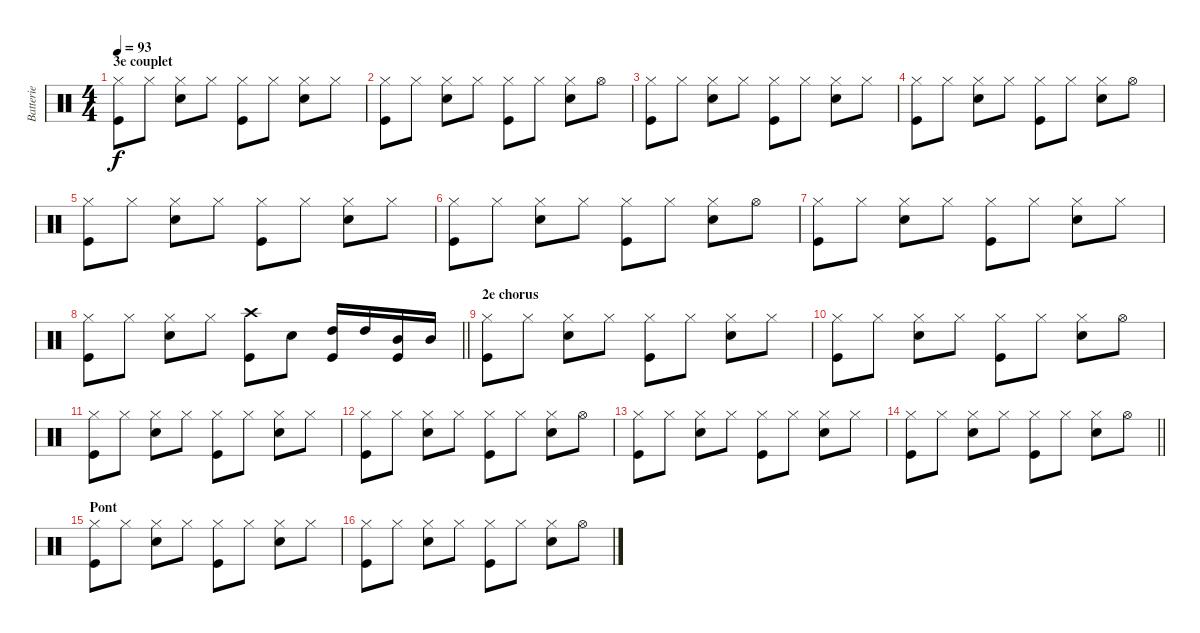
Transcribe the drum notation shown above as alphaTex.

\track ("Batterie" "Batterie") {instrument percussion}
\staff {score}
\articulation defaults
\ts (4 4)
\section ("" "3e couplet")
\tempo 93
\clef neutral
\ks c
("Hi-Hat (closed)" "Kick (hit)").8{dy f} "Hi-Hat (closed)".8 ("Hi-Hat (closed)" "Snare (hit) 2").8 "Hi-Hat (closed)".8 ("Hi-Hat (closed)" "Kick (hit)").8 "Hi-Hat (closed)".8 ("Hi-Hat (closed)" "Snare (hit) 2").8 "Hi-Hat (closed)".8 |
("Hi-Hat (closed)" "Kick (hit)").8 "Hi-Hat (closed)".8 ("Hi-Hat (closed)" "Snare (hit) 2").8 "Hi-Hat (closed)".8 ("Hi-Hat (closed)" "Kick (hit)").8 "Hi-Hat (closed)".8 ("Hi-Hat (closed)" "Snare (hit) 2").8 "Hi-Hat (open)".8 |
("Hi-Hat (closed)" "Kick (hit)").8 "Hi-Hat (closed)".8 ("Hi-Hat (closed)" "Snare (hit) 2").8 "Hi-Hat (closed)".8 ("Hi-Hat (closed)" "Kick (hit)").8 "Hi-Hat (closed)".8 ("Hi-Hat (closed)" "Snare (hit) 2").8 "Hi-Hat (closed)".8 |
("Hi-Hat (closed)" "Kick (hit)").8 "Hi-Hat (closed)".8 ("Hi-Hat (closed)" "Snare (hit) 2").8 "Hi-Hat (closed)".8 ("Hi-Hat (closed)" "Kick (hit)").8 "Hi-Hat (closed)".8 ("Hi-Hat (closed)" "Snare (hit) 2").8 "Hi-Hat (open)".8 |
("Hi-Hat (closed)" "Kick (hit)").8 "Hi-Hat (closed)".8 ("Hi-Hat (closed)" "Snare (hit) 2").8 "Hi-Hat (closed)".8 ("Hi-Hat (closed)" "Kick (hit)").8 "Hi-Hat (closed)".8 ("Hi-Hat (closed)" "Snare (hit) 2").8 "Hi-Hat (closed)".8 |
("Hi-Hat (closed)" "Kick (hit)").8 "Hi-Hat (closed)".8 ("Hi-Hat (closed)" "Snare (hit) 2").8 "Hi-Hat (closed)".8 ("Hi-Hat (closed)" "Kick (hit)").8 "Hi-Hat (closed)".8 ("Hi-Hat (closed)" "Snare (hit) 2").8 "Hi-Hat (open)".8 |
("Hi-Hat (closed)" "Kick (hit)").8 "Hi-Hat (closed)".8 ("Hi-Hat (closed)" "Snare (hit) 2").8 "Hi-Hat (closed)".8 ("Hi-Hat (closed)" "Kick (hit)").8 "Hi-Hat (closed)".8 ("Hi-Hat (closed)" "Snare (hit) 2").8 "Hi-Hat (closed)".8 |
\barLineRight lightlight
("Hi-Hat (closed)" "Kick (hit)").8 "Hi-Hat (closed)".8 ("Hi-Hat (closed)" "Snare (hit) 2").8 "Hi-Hat (closed)".8 ("Crash high (hit)" "Kick (hit)").8 "Snare (hit) 2".8 ("High Tom (hit)" "Kick (hit)").16 "High Tom (hit)".16 ("Mid Tom (hit)" "Kick (hit)").16 "Mid Tom (hit)".16 |
\section ("" "2e chorus")
("Hi-Hat (closed)" "Kick (hit)").8 "Hi-Hat (closed)".8 ("Hi-Hat (closed)" "Snare (hit) 2").8 "Hi-Hat (closed)".8 ("Hi-Hat (closed)" "Kick (hit)").8 "Hi-Hat (closed)".8 ("Hi-Hat (closed)" "Snare (hit) 2").8 "Hi-Hat (closed)".8 |
("Hi-Hat (closed)" "Kick (hit)").8 "Hi-Hat (closed)".8 ("Hi-Hat (closed)" "Snare (hit) 2").8 "Hi-Hat (closed)".8 ("Hi-Hat (closed)" "Kick (hit)").8 "Hi-Hat (closed)".8 ("Hi-Hat (closed)" "Snare (hit) 2").8 "Hi-Hat (open)".8 |
("Hi-Hat (closed)" "Kick (hit)").8 "Hi-Hat (closed)".8 ("Hi-Hat (closed)" "Snare (hit) 2").8 "Hi-Hat (closed)".8 ("Hi-Hat (closed)" "Kick (hit)").8 "Hi-Hat (closed)".8 ("Hi-Hat (closed)" "Snare (hit) 2").8 "Hi-Hat (closed)".8 |
("Hi-Hat (closed)" "Kick (hit)").8 "Hi-Hat (closed)".8 ("Hi-Hat (closed)" "Snare (hit) 2").8 "Hi-Hat (closed)".8 ("Hi-Hat (closed)" "Kick (hit)").8 "Hi-Hat (closed)".8 ("Hi-Hat (closed)" "Snare (hit) 2").8 "Hi-Hat (open)".8 |
("Hi-Hat (closed)" "Kick (hit)").8 "Hi-Hat (closed)".8 ("Hi-Hat (closed)" "Snare (hit) 2").8 "Hi-Hat (closed)".8 ("Hi-Hat (closed)" "Kick (hit)").8 "Hi-Hat (closed)".8 ("Hi-Hat (closed)" "Snare (hit) 2").8 "Hi-Hat (closed)".8 |
\barLineRight lightlight
("Hi-Hat (closed)" "Kick (hit)").8 "Hi-Hat (closed)".8 ("Hi-Hat (closed)" "Snare (hit) 2").8 "Hi-Hat (closed)".8 ("Hi-Hat (closed)" "Kick (hit)").8 "Hi-Hat (closed)".8 ("Hi-Hat (closed)" "Snare (hit) 2").8 "Hi-Hat (open)".8 |
\section ("" "Pont")
("Hi-Hat (closed)" "Kick (hit)").8 "Hi-Hat (closed)".8 ("Hi-Hat (closed)" "Snare (hit) 2").8 "Hi-Hat (closed)".8 ("Hi-Hat (closed)" "Kick (hit)").8 "Hi-Hat (closed)".8 ("Hi-Hat (closed)" "Snare (hit) 2").8 "Hi-Hat (closed)".8 |
("Hi-Hat (closed)" "Kick (hit)").8 "Hi-Hat (closed)".8 ("Hi-Hat (closed)" "Snare (hit) 2").8 "Hi-Hat (closed)".8 ("Hi-Hat (closed)" "Kick (hit)").8 "Hi-Hat (closed)".8 ("Hi-Hat (closed)" "Snare (hit) 2").8 "Hi-Hat (open)".8
